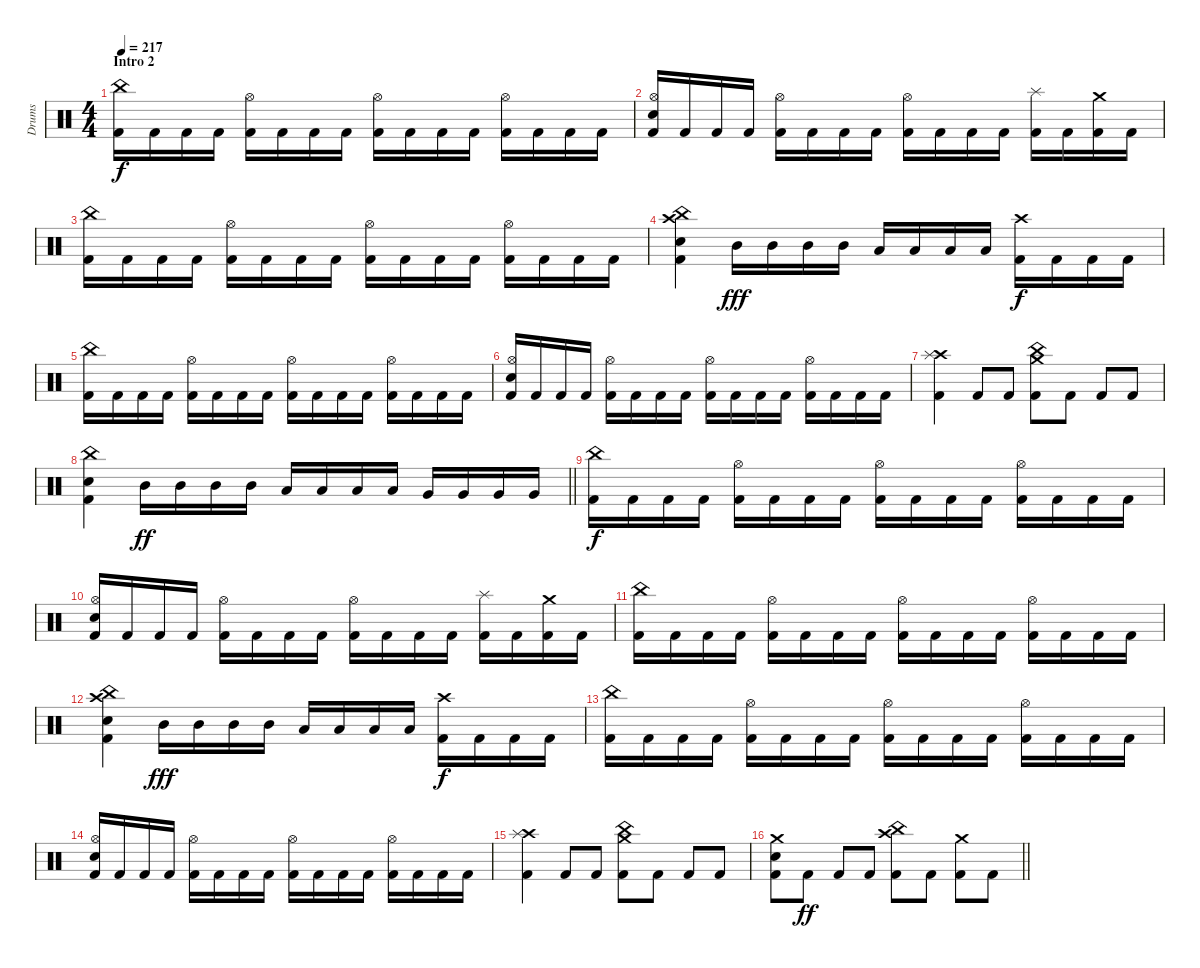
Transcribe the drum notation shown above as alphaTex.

\track ("Drums" "Drums") {instrument percussion}
\staff {score}
\articulation defaults
\ts (4 4)
\section ("" "Intro 2")
\tempo 217
\clef neutral
\ks c
("China (hit)" "Kick (hit) 2").16{dy f} "Kick (hit) 2".16 "Kick (hit) 2".16 "Kick (hit) 2".16 ("Hi-Hat (open)" "Kick (hit) 2").16 "Kick (hit) 2".16 "Kick (hit) 2".16 "Kick (hit) 2".16 ("Hi-Hat (open)" "Kick (hit) 2").16 "Kick (hit) 2".16 "Kick (hit) 2".16 "Kick (hit) 2".16 ("Hi-Hat (open)" "Kick (hit) 2").16 "Kick (hit) 2".16 "Kick (hit) 2".16 "Kick (hit) 2".16 |
("Hi-Hat (open)" "Electric Snare (hit)" "Kick (hit) 2").16 "Kick (hit) 2".16 "Kick (hit) 2".16 "Kick (hit) 2".16 ("Hi-Hat (open)" "Kick (hit) 2").16 "Kick (hit) 2".16 "Kick (hit) 2".16 "Kick (hit) 2".16 ("Hi-Hat (open)" "Kick (hit) 2").16 "Kick (hit) 2".16 "Kick (hit) 2".16 "Kick (hit) 2".16 ("Splash (hit)" "Kick (hit) 2").16 "Kick (hit) 2".16 ("Crash medium (hit)" "Kick (hit) 2").16 "Kick (hit) 2".16 |
("China (hit)" "Kick (hit) 2").16 "Kick (hit) 2".16 "Kick (hit) 2".16 "Kick (hit) 2".16 ("Hi-Hat (open)" "Kick (hit) 2").16 "Kick (hit) 2".16 "Kick (hit) 2".16 "Kick (hit) 2".16 ("Hi-Hat (open)" "Kick (hit) 2").16 "Kick (hit) 2".16 "Kick (hit) 2".16 "Kick (hit) 2".16 ("Hi-Hat (open)" "Kick (hit) 2").16 "Kick (hit) 2".16 "Kick (hit) 2".16 "Kick (hit) 2".16 |
("Crash high (hit)" "China (hit)" "Electric Snare (hit)" "Kick (hit) 2").4 "Mid Tom (hit)".16{dy fff} "Mid Tom (hit)".16 "Mid Tom (hit)".16 "Mid Tom (hit)".16 "Low Tom (hit)".16 "Low Tom (hit)".16 "Low Tom (hit)".16 "Low Tom (hit)".16 ("Crash high (hit)" "Kick (hit) 2").16{dy f} "Kick (hit) 2".16 "Kick (hit) 2".16 "Kick (hit) 2".16 |
("China (hit)" "Kick (hit) 2").16 "Kick (hit) 2".16 "Kick (hit) 2".16 "Kick (hit) 2".16 ("Hi-Hat (open)" "Kick (hit) 2").16 "Kick (hit) 2".16 "Kick (hit) 2".16 "Kick (hit) 2".16 ("Hi-Hat (open)" "Kick (hit) 2").16 "Kick (hit) 2".16 "Kick (hit) 2".16 "Kick (hit) 2".16 ("Hi-Hat (open)" "Kick (hit) 2").16 "Kick (hit) 2".16 "Kick (hit) 2".16 "Kick (hit) 2".16 |
("Hi-Hat (open)" "Electric Snare (hit)" "Kick (hit) 2").16 "Kick (hit) 2".16 "Kick (hit) 2".16 "Kick (hit) 2".16 ("Hi-Hat (open)" "Kick (hit) 2").16 "Kick (hit) 2".16 "Kick (hit) 2".16 "Kick (hit) 2".16 ("Hi-Hat (open)" "Kick (hit) 2").16 "Kick (hit) 2".16 "Kick (hit) 2".16 "Kick (hit) 2".16 ("Hi-Hat (open)" "Kick (hit) 2").16 "Kick (hit) 2".16 "Kick (hit) 2".16 "Kick (hit) 2".16 |
("Crash high (hit)" "Splash (hit)" "Kick (hit) 2").4 "Kick (hit) 2".8 "Kick (hit) 2".8 ("Crash medium (hit)" "China (hit)" "Kick (hit) 2").8 "Kick (hit) 2".8 "Kick (hit) 2".8 "Kick (hit) 2".8 |
\barLineRight lightlight
("China (hit)" "Electric Snare (hit)" "Kick (hit) 2").4 "Mid Tom (hit)".16{dy ff} "Mid Tom (hit)".16 "Mid Tom (hit)".16 "Mid Tom (hit)".16 "Low Tom (hit)".16 "Low Tom (hit)".16 "Low Tom (hit)".16 "Low Tom (hit)".16 "Very Low Tom (hit)".16 "Very Low Tom (hit)".16 "Very Low Tom (hit)".16 "Very Low Tom (hit)".16 |
("China (hit)" "Kick (hit) 2").16{dy f} "Kick (hit) 2".16 "Kick (hit) 2".16 "Kick (hit) 2".16 ("Hi-Hat (open)" "Kick (hit) 2").16 "Kick (hit) 2".16 "Kick (hit) 2".16 "Kick (hit) 2".16 ("Hi-Hat (open)" "Kick (hit) 2").16 "Kick (hit) 2".16 "Kick (hit) 2".16 "Kick (hit) 2".16 ("Hi-Hat (open)" "Kick (hit) 2").16 "Kick (hit) 2".16 "Kick (hit) 2".16 "Kick (hit) 2".16 |
("Hi-Hat (open)" "Electric Snare (hit)" "Kick (hit) 2").16 "Kick (hit) 2".16 "Kick (hit) 2".16 "Kick (hit) 2".16 ("Hi-Hat (open)" "Kick (hit) 2").16 "Kick (hit) 2".16 "Kick (hit) 2".16 "Kick (hit) 2".16 ("Hi-Hat (open)" "Kick (hit) 2").16 "Kick (hit) 2".16 "Kick (hit) 2".16 "Kick (hit) 2".16 ("Splash (hit)" "Kick (hit) 2").16 "Kick (hit) 2".16 ("Crash medium (hit)" "Kick (hit) 2").16 "Kick (hit) 2".16 |
("China (hit)" "Kick (hit) 2").16 "Kick (hit) 2".16 "Kick (hit) 2".16 "Kick (hit) 2".16 ("Hi-Hat (open)" "Kick (hit) 2").16 "Kick (hit) 2".16 "Kick (hit) 2".16 "Kick (hit) 2".16 ("Hi-Hat (open)" "Kick (hit) 2").16 "Kick (hit) 2".16 "Kick (hit) 2".16 "Kick (hit) 2".16 ("Hi-Hat (open)" "Kick (hit) 2").16 "Kick (hit) 2".16 "Kick (hit) 2".16 "Kick (hit) 2".16 |
("Crash high (hit)" "China (hit)" "Electric Snare (hit)" "Kick (hit) 2").4 "Mid Tom (hit)".16{dy fff} "Mid Tom (hit)".16 "Mid Tom (hit)".16 "Mid Tom (hit)".16 "Low Tom (hit)".16 "Low Tom (hit)".16 "Low Tom (hit)".16 "Low Tom (hit)".16 ("Crash high (hit)" "Kick (hit) 2").16{dy f} "Kick (hit) 2".16 "Kick (hit) 2".16 "Kick (hit) 2".16 |
("China (hit)" "Kick (hit) 2").16 "Kick (hit) 2".16 "Kick (hit) 2".16 "Kick (hit) 2".16 ("Hi-Hat (open)" "Kick (hit) 2").16 "Kick (hit) 2".16 "Kick (hit) 2".16 "Kick (hit) 2".16 ("Hi-Hat (open)" "Kick (hit) 2").16 "Kick (hit) 2".16 "Kick (hit) 2".16 "Kick (hit) 2".16 ("Hi-Hat (open)" "Kick (hit) 2").16 "Kick (hit) 2".16 "Kick (hit) 2".16 "Kick (hit) 2".16 |
("Hi-Hat (open)" "Electric Snare (hit)" "Kick (hit) 2").16 "Kick (hit) 2".16 "Kick (hit) 2".16 "Kick (hit) 2".16 ("Hi-Hat (open)" "Kick (hit) 2").16 "Kick (hit) 2".16 "Kick (hit) 2".16 "Kick (hit) 2".16 ("Hi-Hat (open)" "Kick (hit) 2").16 "Kick (hit) 2".16 "Kick (hit) 2".16 "Kick (hit) 2".16 ("Hi-Hat (open)" "Kick (hit) 2").16 "Kick (hit) 2".16 "Kick (hit) 2".16 "Kick (hit) 2".16 |
("Crash high (hit)" "Splash (hit)" "Kick (hit) 2").4 "Kick (hit) 2".8 "Kick (hit) 2".8 ("Crash medium (hit)" "China (hit)" "Kick (hit) 2").8 "Kick (hit) 2".8 "Kick (hit) 2".8 "Kick (hit) 2".8 |
\barLineRight lightlight
("Crash medium (hit)" "Electric Snare (hit)" "Kick (hit) 2").8 "Kick (hit) 2".8{dy ff} "Kick (hit) 2".8 "Kick (hit) 2".8 ("Crash high (hit)" "China (hit)" "Kick (hit) 2").8 "Kick (hit) 2".8 ("Crash medium (hit)" "Kick (hit) 2").8 "Kick (hit) 2".8
